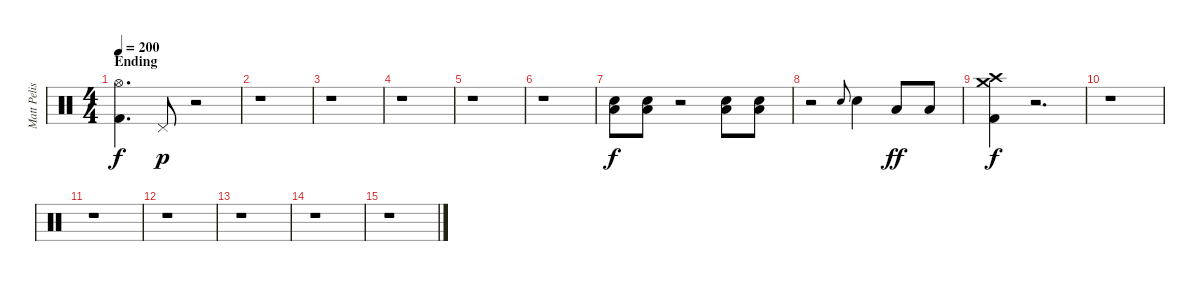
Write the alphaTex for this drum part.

\track ("Matt Pelissier" "Matt Pelis") {instrument percussion}
\staff {score}
\articulation defaults
\ts (4 4)
\section ("" "Ending")
\tempo 200
\clef neutral
\ks c
("Hi-Hat (open)" "Kick (hit) 2").4{d dy f} "Pedal Hi-Hat (hit)".8{dy p} r.2 |
r.1 |
r.1 |
r.1 |
r.1 |
r.1 |
("Low Tom (hit)" "Snare (hit) 2").8{dy f} ("Low Tom (hit)" "Snare (hit) 2").8 r.2 ("Low Tom (hit)" "Snare (hit) 2").8 ("Low Tom (hit)" "Snare (hit) 2").8 |
r.2 "Snare (hit) 2".8{gr onbeat} "Snare (hit) 2".4 "Low Tom (hit)".8{dy ff} "Low Tom (hit)".8 |
("Crash medium (hit)" "Crash high (hit)" "Kick (hit) 2").4{dy f} r.2{d} |
r.1 |
r.1 |
r.1 |
r.1 |
r.1 |
r.1
